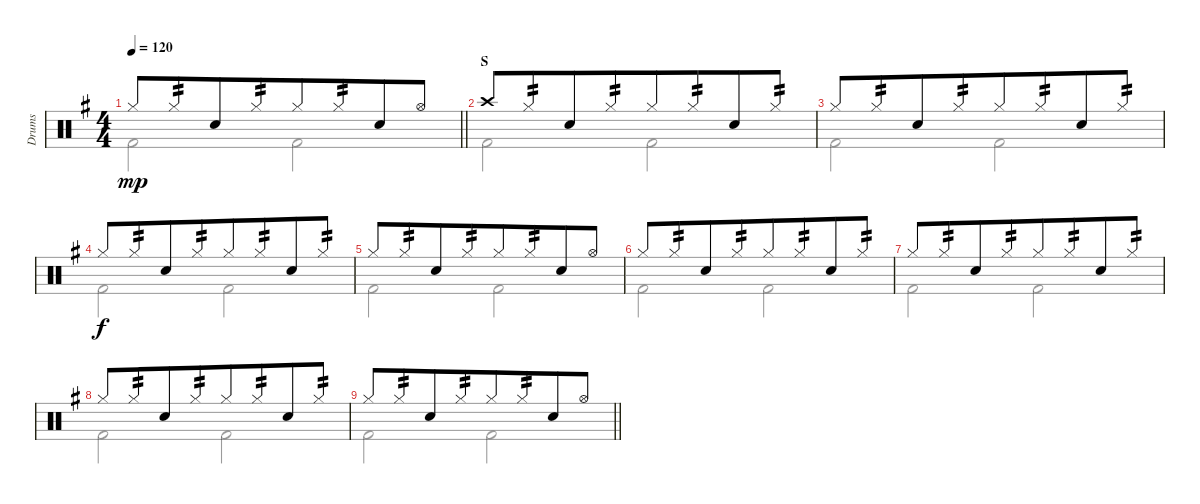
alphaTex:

\track ("Drums" "Drums") {instrument percussion}
\staff {score}
\articulation defaults
\voice
\ts (4 4)
\tempo 120
\clef neutral
\barLineRight lightlight
\ks g "Hi-Hat (closed)".8{dy mp} "Hi-Hat (closed)".8{tp 2 beam merge} "Snare (hit) 2".8 "Hi-Hat (closed)".8{tp 2 beam merge} "Hi-Hat (closed)".8 "Hi-Hat (closed)".8{tp 2 beam merge} "Snare (hit) 2".8 "Hi-Hat (open)".8
|
\section ("" "S")
"Crash high (hit)".8 "Hi-Hat (closed)".8{tp 2 beam merge} "Snare (hit) 2".8 "Hi-Hat (closed)".8{tp 2 beam merge} "Hi-Hat (closed)".8 "Hi-Hat (closed)".8{tp 2 beam merge} "Snare (hit) 2".8 "Hi-Hat (closed)".8{tp 2} |
"Hi-Hat (closed)".8 "Hi-Hat (closed)".8{tp 2 beam merge} "Snare (hit) 2".8 "Hi-Hat (closed)".8{tp 2 beam merge} "Hi-Hat (closed)".8 "Hi-Hat (closed)".8{tp 2 beam merge} "Snare (hit) 2".8 "Hi-Hat (closed)".8{tp 2} |
"Hi-Hat (closed)".8{dy f} "Hi-Hat (closed)".8{tp 2 beam merge} "Snare (hit) 2".8 "Hi-Hat (closed)".8{tp 2 beam merge} "Hi-Hat (closed)".8 "Hi-Hat (closed)".8{tp 2 beam merge} "Snare (hit) 2".8 "Hi-Hat (closed)".8{tp 2} |
"Hi-Hat (closed)".8 "Hi-Hat (closed)".8{tp 2 beam merge} "Snare (hit) 2".8 "Hi-Hat (closed)".8{tp 2 beam merge} "Hi-Hat (closed)".8 "Hi-Hat (closed)".8{tp 2 beam merge} "Snare (hit) 2".8 "Hi-Hat (open)".8 |
"Hi-Hat (closed)".8 "Hi-Hat (closed)".8{tp 2 beam merge} "Snare (hit) 2".8 "Hi-Hat (closed)".8{tp 2 beam merge} "Hi-Hat (closed)".8 "Hi-Hat (closed)".8{tp 2 beam merge} "Snare (hit) 2".8 "Hi-Hat (closed)".8{tp 2} |
"Hi-Hat (closed)".8 "Hi-Hat (closed)".8{tp 2 beam merge} "Snare (hit) 2".8 "Hi-Hat (closed)".8{tp 2 beam merge} "Hi-Hat (closed)".8 "Hi-Hat (closed)".8{tp 2 beam merge} "Snare (hit) 2".8 "Hi-Hat (closed)".8{tp 2} |
"Hi-Hat (closed)".8 "Hi-Hat (closed)".8{tp 2 beam merge} "Snare (hit) 2".8 "Hi-Hat (closed)".8{tp 2 beam merge} "Hi-Hat (closed)".8 "Hi-Hat (closed)".8{tp 2 beam merge} "Snare (hit) 2".8 "Hi-Hat (closed)".8{tp 2} |
\barLineRight lightlight "Hi-Hat (closed)".8 "Hi-Hat (closed)".8{tp 2 beam merge} "Snare (hit) 2".8 "Hi-Hat (closed)".8{tp 2 beam merge} "Hi-Hat (closed)".8 "Hi-Hat (closed)".8{tp 2 beam merge} "Snare (hit) 2".8 "Hi-Hat (open)".8
\voice
\clef neutral
\ottava regular
\simile none
\barLineRight lightlight
\ks g "Kick (hit) 2".2{dy mp} "Kick (hit) 2".2
|
"Kick (hit) 2".2 "Kick (hit) 2".2 |
"Kick (hit) 2".2 "Kick (hit) 2".2 |
"Kick (hit) 2".2{dy f} "Kick (hit) 2".2 |
"Kick (hit) 2".2 "Kick (hit) 2".2 |
"Kick (hit) 2".2 "Kick (hit) 2".2 |
"Kick (hit) 2".2 "Kick (hit) 2".2 |
"Kick (hit) 2".2 "Kick (hit) 2".2 |
\barLineRight lightlight "Kick (hit) 2".2 "Kick (hit) 2".2
